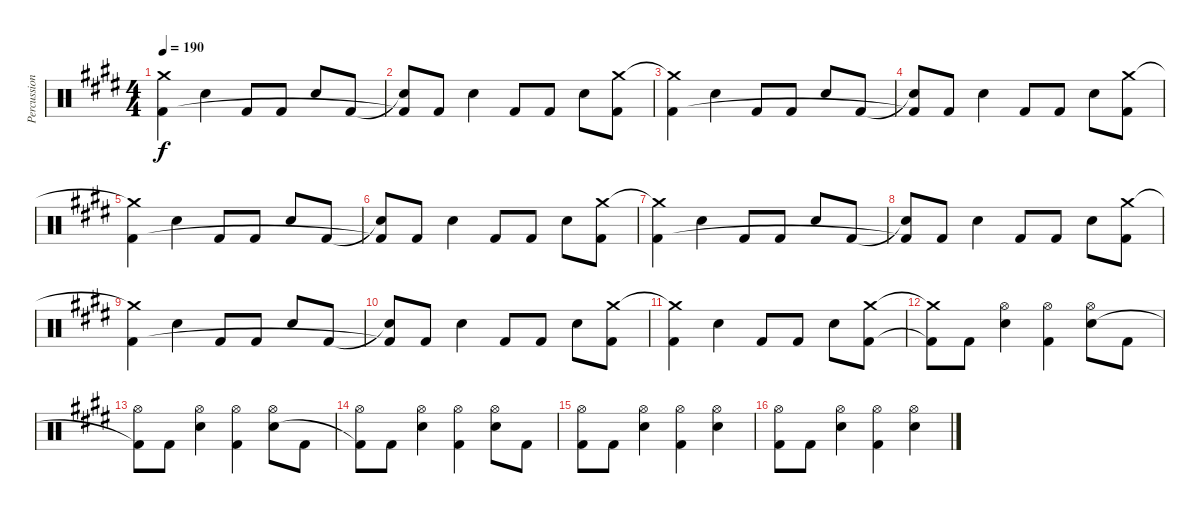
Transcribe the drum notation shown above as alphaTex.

\track ("Percussion" "Percussion") {instrument percussion}
\staff {score}
\articulation defaults
\ts (4 4)
\tempo 190
\clef neutral
\ks e
("Crash medium (hit)"{t} "Kick (hit) 2").4{dy f} "Snare (hit) 2".4 "Kick (hit) 2".8 "Kick (hit) 2".8 "Snare (hit) 2".8 "Kick (hit) 2".8 |
("Snare (hit)"{t} "Kick (hit) 2"{t}).8 "Kick (hit) 2".8 "Snare (hit) 2".4 "Kick (hit) 2".8 "Kick (hit) 2".8 "Snare (hit) 2".8 ("Crash medium (hit)" "Kick (hit) 2").8 |
("Crash medium (hit)"{t} "Kick (hit) 2").4 "Snare (hit) 2".4 "Kick (hit) 2".8 "Kick (hit) 2".8 "Snare (hit) 2".8 "Kick (hit) 2".8 |
("Snare (hit)"{t} "Kick (hit) 2"{t}).8 "Kick (hit) 2".8 "Snare (hit) 2".4 "Kick (hit) 2".8 "Kick (hit) 2".8 "Snare (hit) 2".8 ("Crash medium (hit)" "Kick (hit) 2").8 |
("Crash medium (hit)"{t} "Kick (hit) 2").4 "Snare (hit) 2".4 "Kick (hit) 2".8 "Kick (hit) 2".8 "Snare (hit) 2".8 "Kick (hit) 2".8 |
("Snare (hit)"{t} "Kick (hit) 2"{t}).8 "Kick (hit) 2".8 "Snare (hit) 2".4 "Kick (hit) 2".8 "Kick (hit) 2".8 "Snare (hit) 2".8 ("Crash medium (hit)" "Kick (hit) 2").8 |
("Crash medium (hit)"{t} "Kick (hit) 2").4 "Snare (hit) 2".4 "Kick (hit) 2".8 "Kick (hit) 2".8 "Snare (hit) 2".8 "Kick (hit) 2".8 |
("Snare (hit)"{t} "Kick (hit) 2"{t}).8 "Kick (hit) 2".8 "Snare (hit) 2".4 "Kick (hit) 2".8 "Kick (hit) 2".8 "Snare (hit) 2".8 ("Crash medium (hit)" "Kick (hit) 2").8 |
("Crash medium (hit)"{t} "Kick (hit) 2").4 "Snare (hit) 2".4 "Kick (hit) 2".8 "Kick (hit) 2".8 "Snare (hit) 2".8 "Kick (hit) 2".8 |
("Snare (hit)"{t} "Kick (hit) 2"{t}).8 "Kick (hit) 2".8 "Snare (hit) 2".4 "Kick (hit) 2".8 "Kick (hit) 2".8 "Snare (hit) 2".8 ("Crash medium (hit)" "Kick (hit) 2").8 |
("Crash medium (hit)"{t} "Kick (hit) 2").4 "Snare (hit) 2".4 "Kick (hit) 2".8 "Kick (hit) 2".8 "Snare (hit) 2".8 ("Crash medium (hit)" "Kick (hit) 2").8 |
("Crash medium (hit)"{t} "Kick (hit) 2"{t}).8 "Kick (hit) 2".8 ("Hi-Hat (open)" "Snare (hit) 2").4 ("Hi-Hat (open)" "Kick (hit) 2").4 ("Hi-Hat (open)" "Snare (hit) 2").8 "Kick (hit) 2".8 |
("Hi-Hat (open)" "Kick (hit) 2"{t}).8 "Kick (hit) 2".8 ("Hi-Hat (open)" "Snare (hit) 2").4 ("Hi-Hat (open)" "Kick (hit) 2").4 ("Hi-Hat (open)" "Snare (hit) 2").8 "Kick (hit) 2".8 |
("Hi-Hat (open)" "Kick (hit) 2"{t}).8 "Kick (hit) 2".8 ("Hi-Hat (open)" "Snare (hit) 2").4 ("Hi-Hat (open)" "Kick (hit) 2").4 ("Hi-Hat (open)" "Snare (hit) 2").8 "Kick (hit) 2".8 |
("Hi-Hat (open)" "Kick (hit) 2").8 "Kick (hit) 2".8 ("Hi-Hat (open)" "Snare (hit) 2").4 ("Hi-Hat (open)" "Kick (hit) 2").4 ("Hi-Hat (open)" "Snare (hit) 2").4 |
("Hi-Hat (open)" "Kick (hit) 2").8 "Kick (hit) 2".8 ("Hi-Hat (open)" "Snare (hit) 2").4 ("Hi-Hat (open)" "Kick (hit) 2").4 ("Hi-Hat (open)" "Snare (hit) 2").4
